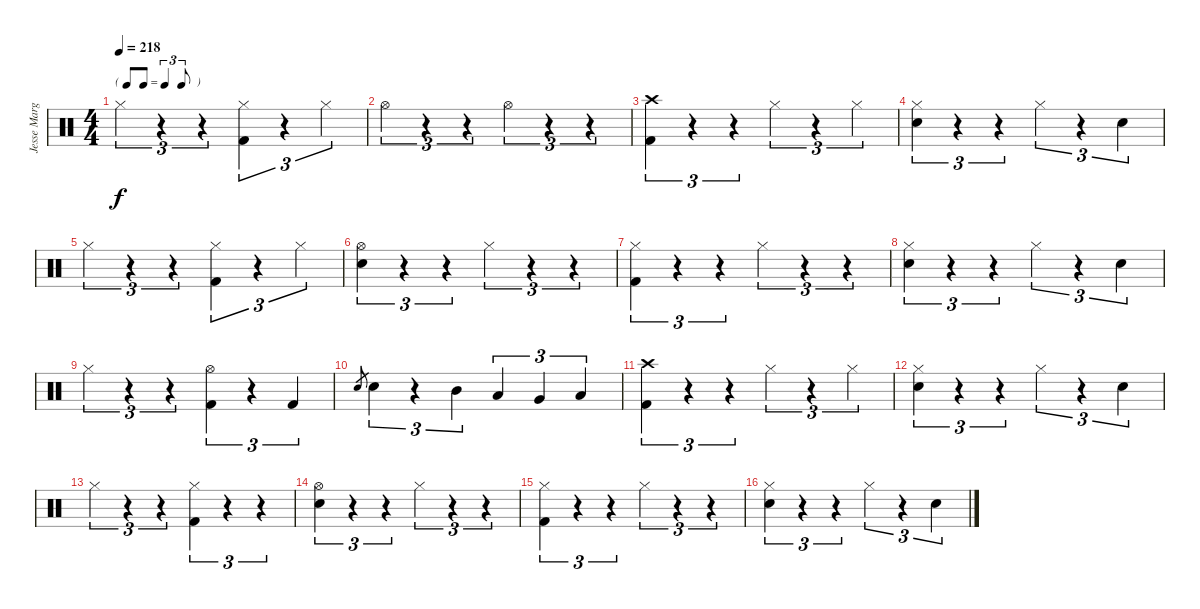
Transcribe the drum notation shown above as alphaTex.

\track ("Jesse Margera" "Jesse Marg") {instrument percussion}
\staff {score}
\articulation defaults
\ts (4 4)
\tf triplet8th
\tempo 218
\clef neutral
\ks c "Hi-Hat (closed)".4{tu (3 2) dy f}
r.4{tu (3 2)} r.4{tu (3 2)} ("Hi-Hat (closed)" "Kick (hit) 2").4{tu (3 2)} r.4{tu (3 2)} "Hi-Hat (closed)".4{tu (3 2)} |
"Hi-Hat (open)".4{tu (3 2)} r.4{tu (3 2)} r.4{tu (3 2)} "Hi-Hat (open)".4{tu (3 2)} r.4{tu (3 2)} r.4{tu (3 2)} |
("Crash high (hit)" "Kick (hit) 2").4{tu (3 2)} r.4{tu (3 2)} r.4{tu (3 2)} "Hi-Hat (closed)".4{tu (3 2)} r.4{tu (3 2)} "Hi-Hat (closed)".4{tu (3 2)} |
("Hi-Hat (closed)" "Electric Snare (hit)").4{tu (3 2)} r.4{tu (3 2)} r.4{tu (3 2)} "Hi-Hat (closed)".4{tu (3 2)} r.4{tu (3 2)} "Electric Snare (hit)".4{tu (3 2)} |
"Hi-Hat (closed)".4{tu (3 2)} r.4{tu (3 2)} r.4{tu (3 2)} ("Hi-Hat (closed)" "Kick (hit) 2").4{tu (3 2)} r.4{tu (3 2)} "Hi-Hat (closed)".4{tu (3 2)} |
("Hi-Hat (open)" "Electric Snare (hit)").4{tu (3 2)} r.4{tu (3 2)} r.4{tu (3 2)} "Hi-Hat (closed)".4{tu (3 2)} r.4{tu (3 2)} r.4{tu (3 2)} |
("Hi-Hat (closed)" "Kick (hit) 2").4{tu (3 2)} r.4{tu (3 2)} r.4{tu (3 2)} "Hi-Hat (closed)".4{tu (3 2)} r.4{tu (3 2)} r.4{tu (3 2)} |
("Hi-Hat (closed)" "Electric Snare (hit)").4{tu (3 2)} r.4{tu (3 2)} r.4{tu (3 2)} "Hi-Hat (closed)".4{tu (3 2)} r.4{tu (3 2)} "Electric Snare (hit)".4{tu (3 2)} |
"Hi-Hat (closed)".4{tu (3 2)} r.4{tu (3 2)} r.4{tu (3 2)} ("Hi-Hat (open)" "Kick (hit) 2").4{tu (3 2)} r.4{tu (3 2)} "Kick (hit) 2".4{tu (3 2)} |
"Electric Snare (hit)".8{gr} "Electric Snare (hit)".4{tu (3 2)} r.4{tu (3 2)} "Mid Tom (hit)".4{tu (3 2)} "Low Tom (hit)".4{tu (3 2)} "Very Low Tom (hit)".4{tu (3 2)} "Low Floor Tom (hit)".4{tu (3 2)} |
("Crash high (hit)" "Kick (hit) 2").4{tu (3 2)} r.4{tu (3 2)} r.4{tu (3 2)} "Hi-Hat (closed)".4{tu (3 2)} r.4{tu (3 2)} "Hi-Hat (closed)".4{tu (3 2)} |
("Hi-Hat (closed)" "Electric Snare (hit)").4{tu (3 2)} r.4{tu (3 2)} r.4{tu (3 2)} "Hi-Hat (closed)".4{tu (3 2)} r.4{tu (3 2)} "Electric Snare (hit)".4{tu (3 2)} |
"Hi-Hat (closed)".4{tu (3 2)} r.4{tu (3 2)} r.4{tu (3 2)} ("Hi-Hat (closed)" "Kick (hit) 2").4{tu (3 2)} r.4{tu (3 2)} r.4{tu (3 2)} |
("Hi-Hat (open)" "Electric Snare (hit)").4{tu (3 2)} r.4{tu (3 2)} r.4{tu (3 2)} "Hi-Hat (closed)".4{tu (3 2)} r.4{tu (3 2)} r.4{tu (3 2)} |
("Hi-Hat (closed)" "Kick (hit) 2").4{tu (3 2)} r.4{tu (3 2)} r.4{tu (3 2)} "Hi-Hat (closed)".4{tu (3 2)} r.4{tu (3 2)} r.4{tu (3 2)} |
("Hi-Hat (closed)" "Electric Snare (hit)").4{tu (3 2)} r.4{tu (3 2)} r.4{tu (3 2)} "Hi-Hat (closed)".4{tu (3 2)} r.4{tu (3 2)} "Electric Snare (hit)".4{tu (3 2)}
